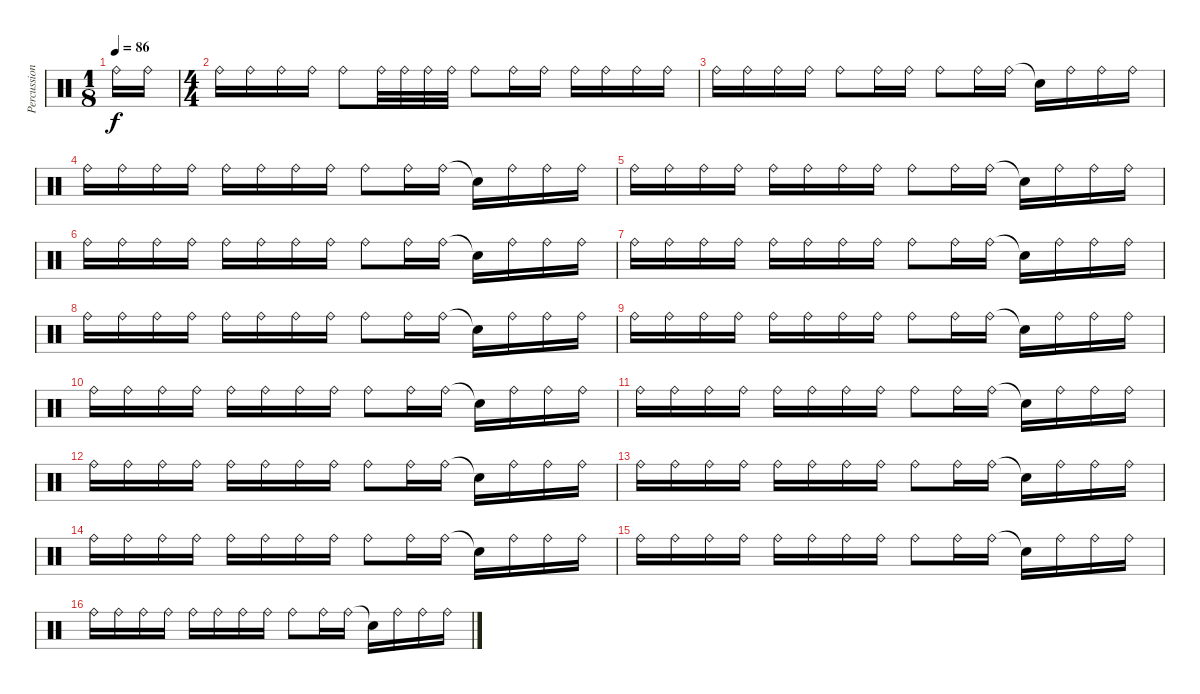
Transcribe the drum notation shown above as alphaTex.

\track ("Percussions" "Percussion") {instrument percussion}
\staff {score}
\articulation defaults
\ts (1 8)
\tempo 86
\clef neutral
\ks c "Ride (bell)".16{dy f} "Ride (bell)".16
|
\ts (4 4)
"Ride (bell)".16 "Ride (bell)".16 "Ride (bell)".16 "Ride (bell)".16 "Ride (bell)".8 "Ride (bell)".32 "Ride (bell)".32 "Ride (bell)".32 "Ride (bell)".32 "Ride (bell)".8 "Ride (bell)".16 "Ride (bell)".16 "Ride (bell)".16 "Ride (bell)".16 "Ride (bell)".16 "Ride (bell)".16 |
"Ride (bell)".16 "Ride (bell)".16 "Ride (bell)".16 "Ride (bell)".16 "Ride (bell)".8 "Ride (bell)".16 "Ride (bell)".16 "Ride (bell)".8 "Ride (bell)".16 "Ride (bell)".16 "Snare (hit)"{t}.16 "Ride (bell)".16 "Ride (bell)".16 "Ride (bell)".16 |
"Ride (bell)".16 "Ride (bell)".16 "Ride (bell)".16 "Ride (bell)".16 "Ride (bell)".16 "Ride (bell)".16 "Ride (bell)".16 "Ride (bell)".16 "Ride (bell)".8 "Ride (bell)".16 "Ride (bell)".16 "Snare (hit)"{t}.16 "Ride (bell)".16 "Ride (bell)".16 "Ride (bell)".16 |
"Ride (bell)".16 "Ride (bell)".16 "Ride (bell)".16 "Ride (bell)".16 "Ride (bell)".16 "Ride (bell)".16 "Ride (bell)".16 "Ride (bell)".16 "Ride (bell)".8 "Ride (bell)".16 "Ride (bell)".16 "Snare (hit)"{t}.16 "Ride (bell)".16 "Ride (bell)".16 "Ride (bell)".16 |
"Ride (bell)".16 "Ride (bell)".16 "Ride (bell)".16 "Ride (bell)".16 "Ride (bell)".16 "Ride (bell)".16 "Ride (bell)".16 "Ride (bell)".16 "Ride (bell)".8 "Ride (bell)".16 "Ride (bell)".16 "Snare (hit)"{t}.16 "Ride (bell)".16 "Ride (bell)".16 "Ride (bell)".16 |
"Ride (bell)".16 "Ride (bell)".16 "Ride (bell)".16 "Ride (bell)".16 "Ride (bell)".16 "Ride (bell)".16 "Ride (bell)".16 "Ride (bell)".16 "Ride (bell)".8 "Ride (bell)".16 "Ride (bell)".16 "Snare (hit)"{t}.16 "Ride (bell)".16 "Ride (bell)".16 "Ride (bell)".16 |
"Ride (bell)".16 "Ride (bell)".16 "Ride (bell)".16 "Ride (bell)".16 "Ride (bell)".16 "Ride (bell)".16 "Ride (bell)".16 "Ride (bell)".16 "Ride (bell)".8 "Ride (bell)".16 "Ride (bell)".16 "Snare (hit)"{t}.16 "Ride (bell)".16 "Ride (bell)".16 "Ride (bell)".16 |
"Ride (bell)".16 "Ride (bell)".16 "Ride (bell)".16 "Ride (bell)".16 "Ride (bell)".16 "Ride (bell)".16 "Ride (bell)".16 "Ride (bell)".16 "Ride (bell)".8 "Ride (bell)".16 "Ride (bell)".16 "Snare (hit)"{t}.16 "Ride (bell)".16 "Ride (bell)".16 "Ride (bell)".16 |
"Ride (bell)".16 "Ride (bell)".16 "Ride (bell)".16 "Ride (bell)".16 "Ride (bell)".16 "Ride (bell)".16 "Ride (bell)".16 "Ride (bell)".16 "Ride (bell)".8 "Ride (bell)".16 "Ride (bell)".16 "Snare (hit)"{t}.16 "Ride (bell)".16 "Ride (bell)".16 "Ride (bell)".16 |
"Ride (bell)".16 "Ride (bell)".16 "Ride (bell)".16 "Ride (bell)".16 "Ride (bell)".16 "Ride (bell)".16 "Ride (bell)".16 "Ride (bell)".16 "Ride (bell)".8 "Ride (bell)".16 "Ride (bell)".16 "Snare (hit)"{t}.16 "Ride (bell)".16 "Ride (bell)".16 "Ride (bell)".16 |
"Ride (bell)".16 "Ride (bell)".16 "Ride (bell)".16 "Ride (bell)".16 "Ride (bell)".16 "Ride (bell)".16 "Ride (bell)".16 "Ride (bell)".16 "Ride (bell)".8 "Ride (bell)".16 "Ride (bell)".16 "Snare (hit)"{t}.16 "Ride (bell)".16 "Ride (bell)".16 "Ride (bell)".16 |
"Ride (bell)".16 "Ride (bell)".16 "Ride (bell)".16 "Ride (bell)".16 "Ride (bell)".16 "Ride (bell)".16 "Ride (bell)".16 "Ride (bell)".16 "Ride (bell)".8 "Ride (bell)".16 "Ride (bell)".16 "Snare (hit)"{t}.16 "Ride (bell)".16 "Ride (bell)".16 "Ride (bell)".16 |
"Ride (bell)".16 "Ride (bell)".16 "Ride (bell)".16 "Ride (bell)".16 "Ride (bell)".16 "Ride (bell)".16 "Ride (bell)".16 "Ride (bell)".16 "Ride (bell)".8 "Ride (bell)".16 "Ride (bell)".16 "Snare (hit)"{t}.16 "Ride (bell)".16 "Ride (bell)".16 "Ride (bell)".16 |
"Ride (bell)".16 "Ride (bell)".16 "Ride (bell)".16 "Ride (bell)".16 "Ride (bell)".16 "Ride (bell)".16 "Ride (bell)".16 "Ride (bell)".16 "Ride (bell)".8 "Ride (bell)".16 "Ride (bell)".16 "Snare (hit)"{t}.16 "Ride (bell)".16 "Ride (bell)".16 "Ride (bell)".16 |
"Ride (bell)".16 "Ride (bell)".16 "Ride (bell)".16 "Ride (bell)".16 "Ride (bell)".16 "Ride (bell)".16 "Ride (bell)".16 "Ride (bell)".16 "Ride (bell)".8 "Ride (bell)".16 "Ride (bell)".16 "Snare (hit)"{t}.16 "Ride (bell)".16 "Ride (bell)".16 "Ride (bell)".16
